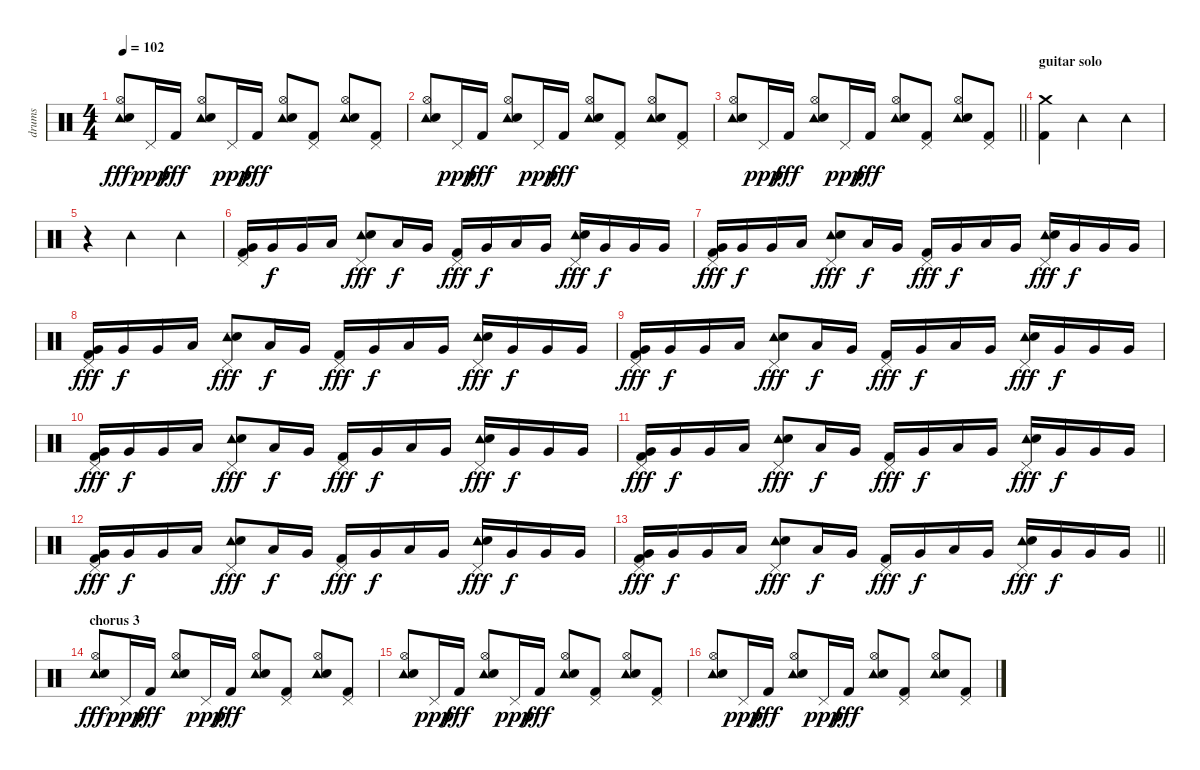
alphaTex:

\track ("drums" "drums") {instrument percussion}
\staff {score}
\articulation defaults
\ts (4 4)
\tempo 102
\clef neutral
\ks c
("Tambourine (hit)" "Hi-Hat (open)" "Electric Snare (hit)").8{dy fff} "Pedal Hi-Hat (hit)".16{dy ppp} "Kick (hit) 2".16{dy fff} ("Tambourine (hit)" "Hi-Hat (open)" "Electric Snare (hit)").8 "Pedal Hi-Hat (hit)".16{dy ppp} "Kick (hit) 2".16{dy fff} ("Tambourine (hit)" "Hi-Hat (open)" "Electric Snare (hit)").8 ("Pedal Hi-Hat (hit)" "Kick (hit) 2").8 ("Tambourine (hit)" "Hi-Hat (open)" "Electric Snare (hit)").8 ("Pedal Hi-Hat (hit)" "Kick (hit) 2").8 |
("Tambourine (hit)" "Hi-Hat (open)" "Electric Snare (hit)").8 "Pedal Hi-Hat (hit)".16{dy ppp} "Kick (hit) 2".16{dy fff} ("Tambourine (hit)" "Hi-Hat (open)" "Electric Snare (hit)").8 "Pedal Hi-Hat (hit)".16{dy ppp} "Kick (hit) 2".16{dy fff} ("Tambourine (hit)" "Hi-Hat (open)" "Electric Snare (hit)").8 ("Pedal Hi-Hat (hit)" "Kick (hit) 2").8 ("Tambourine (hit)" "Hi-Hat (open)" "Electric Snare (hit)").8 ("Pedal Hi-Hat (hit)" "Kick (hit) 2").8 |
\barLineRight lightlight
("Tambourine (hit)" "Hi-Hat (open)" "Electric Snare (hit)").8 "Pedal Hi-Hat (hit)".16{dy ppp} "Kick (hit) 2".16{dy fff} ("Tambourine (hit)" "Hi-Hat (open)" "Electric Snare (hit)").8 "Pedal Hi-Hat (hit)".16{dy ppp} "Kick (hit) 2".16{dy fff} ("Tambourine (hit)" "Hi-Hat (open)" "Electric Snare (hit)").8 ("Pedal Hi-Hat (hit)" "Kick (hit) 2").8 ("Tambourine (hit)" "Hi-Hat (open)" "Electric Snare (hit)").8 ("Pedal Hi-Hat (hit)" "Kick (hit) 2").8 |
\section ("" "guitar solo")
("Crash medium (hit)" "Kick (hit) 2").4 "Tambourine (hit)".2 "Tambourine (hit)".4 |
r.4 "Tambourine (hit)".2 "Tambourine (hit)".4 |
("Pedal Hi-Hat (hit)" "Very Low Tom (hit)" "Kick (hit) 2").16 "Very Low Tom (hit)".16{dy f} "Very Low Tom (hit)".16 "Low Tom (hit)".16 ("Tambourine (hit)" "Pedal Hi-Hat (hit)" "Electric Snare (hit)").8{dy fff} "Low Tom (hit)".16{dy f} "Very Low Tom (hit)".16 ("Pedal Hi-Hat (hit)" "Kick (hit) 2").16{dy fff} "Very Low Tom (hit)".16{dy f} "Low Tom (hit)".16 "Very Low Tom (hit)".16 ("Tambourine (hit)" "Pedal Hi-Hat (hit)" "Electric Snare (hit)").16{dy fff} "Very Low Tom (hit)".16{dy f} "Very Low Tom (hit)".16 "Very Low Tom (hit)".16 |
("Pedal Hi-Hat (hit)" "Very Low Tom (hit)" "Kick (hit) 2").16{dy fff} "Very Low Tom (hit)".16{dy f} "Very Low Tom (hit)".16 "Low Tom (hit)".16 ("Tambourine (hit)" "Pedal Hi-Hat (hit)" "Electric Snare (hit)").8{dy fff} "Low Tom (hit)".16{dy f} "Very Low Tom (hit)".16 ("Pedal Hi-Hat (hit)" "Kick (hit) 2").16{dy fff} "Very Low Tom (hit)".16{dy f} "Low Tom (hit)".16 "Very Low Tom (hit)".16 ("Tambourine (hit)" "Pedal Hi-Hat (hit)" "Electric Snare (hit)").16{dy fff} "Very Low Tom (hit)".16{dy f} "Very Low Tom (hit)".16 "Very Low Tom (hit)".16 |
("Pedal Hi-Hat (hit)" "Very Low Tom (hit)" "Kick (hit) 2").16{dy fff} "Very Low Tom (hit)".16{dy f} "Very Low Tom (hit)".16 "Low Tom (hit)".16 ("Tambourine (hit)" "Pedal Hi-Hat (hit)" "Electric Snare (hit)").8{dy fff} "Low Tom (hit)".16{dy f} "Very Low Tom (hit)".16 ("Pedal Hi-Hat (hit)" "Kick (hit) 2").16{dy fff} "Very Low Tom (hit)".16{dy f} "Low Tom (hit)".16 "Very Low Tom (hit)".16 ("Tambourine (hit)" "Pedal Hi-Hat (hit)" "Electric Snare (hit)").16{dy fff} "Very Low Tom (hit)".16{dy f} "Very Low Tom (hit)".16 "Very Low Tom (hit)".16 |
("Pedal Hi-Hat (hit)" "Very Low Tom (hit)" "Kick (hit) 2").16{dy fff} "Very Low Tom (hit)".16{dy f} "Very Low Tom (hit)".16 "Low Tom (hit)".16 ("Tambourine (hit)" "Pedal Hi-Hat (hit)" "Electric Snare (hit)").8{dy fff} "Low Tom (hit)".16{dy f} "Very Low Tom (hit)".16 ("Pedal Hi-Hat (hit)" "Kick (hit) 2").16{dy fff} "Very Low Tom (hit)".16{dy f} "Low Tom (hit)".16 "Very Low Tom (hit)".16 ("Tambourine (hit)" "Pedal Hi-Hat (hit)" "Electric Snare (hit)").16{dy fff} "Very Low Tom (hit)".16{dy f} "Very Low Tom (hit)".16 "Very Low Tom (hit)".16 |
("Pedal Hi-Hat (hit)" "Very Low Tom (hit)" "Kick (hit) 2").16{dy fff} "Very Low Tom (hit)".16{dy f} "Very Low Tom (hit)".16 "Low Tom (hit)".16 ("Tambourine (hit)" "Pedal Hi-Hat (hit)" "Electric Snare (hit)").8{dy fff} "Low Tom (hit)".16{dy f} "Very Low Tom (hit)".16 ("Pedal Hi-Hat (hit)" "Kick (hit) 2").16{dy fff} "Very Low Tom (hit)".16{dy f} "Low Tom (hit)".16 "Very Low Tom (hit)".16 ("Tambourine (hit)" "Pedal Hi-Hat (hit)" "Electric Snare (hit)").16{dy fff} "Very Low Tom (hit)".16{dy f} "Very Low Tom (hit)".16 "Very Low Tom (hit)".16 |
("Pedal Hi-Hat (hit)" "Very Low Tom (hit)" "Kick (hit) 2").16{dy fff} "Very Low Tom (hit)".16{dy f} "Very Low Tom (hit)".16 "Low Tom (hit)".16 ("Tambourine (hit)" "Pedal Hi-Hat (hit)" "Electric Snare (hit)").8{dy fff} "Low Tom (hit)".16{dy f} "Very Low Tom (hit)".16 ("Pedal Hi-Hat (hit)" "Kick (hit) 2").16{dy fff} "Very Low Tom (hit)".16{dy f} "Low Tom (hit)".16 "Very Low Tom (hit)".16 ("Tambourine (hit)" "Pedal Hi-Hat (hit)" "Electric Snare (hit)").16{dy fff} "Very Low Tom (hit)".16{dy f} "Very Low Tom (hit)".16 "Very Low Tom (hit)".16 |
("Pedal Hi-Hat (hit)" "Very Low Tom (hit)" "Kick (hit) 2").16{dy fff} "Very Low Tom (hit)".16{dy f} "Very Low Tom (hit)".16 "Low Tom (hit)".16 ("Tambourine (hit)" "Pedal Hi-Hat (hit)" "Electric Snare (hit)").8{dy fff} "Low Tom (hit)".16{dy f} "Very Low Tom (hit)".16 ("Pedal Hi-Hat (hit)" "Kick (hit) 2").16{dy fff} "Very Low Tom (hit)".16{dy f} "Low Tom (hit)".16 "Very Low Tom (hit)".16 ("Tambourine (hit)" "Pedal Hi-Hat (hit)" "Electric Snare (hit)").16{dy fff} "Very Low Tom (hit)".16{dy f} "Very Low Tom (hit)".16 "Very Low Tom (hit)".16 |
\barLineRight lightlight
("Pedal Hi-Hat (hit)" "Very Low Tom (hit)" "Kick (hit) 2").16{dy fff} "Very Low Tom (hit)".16{dy f} "Very Low Tom (hit)".16 "Low Tom (hit)".16 ("Tambourine (hit)" "Pedal Hi-Hat (hit)" "Electric Snare (hit)").8{dy fff} "Low Tom (hit)".16{dy f} "Very Low Tom (hit)".16 ("Pedal Hi-Hat (hit)" "Kick (hit) 2").16{dy fff} "Very Low Tom (hit)".16{dy f} "Low Tom (hit)".16 "Very Low Tom (hit)".16 ("Tambourine (hit)" "Pedal Hi-Hat (hit)" "Electric Snare (hit)").16{dy fff} "Very Low Tom (hit)".16{dy f} "Very Low Tom (hit)".16 "Very Low Tom (hit)".16 |
\section ("" "chorus 3")
("Tambourine (hit)" "Hi-Hat (open)" "Electric Snare (hit)").8{dy fff} "Pedal Hi-Hat (hit)".16{dy ppp} "Kick (hit) 2".16{dy fff} ("Tambourine (hit)" "Hi-Hat (open)" "Electric Snare (hit)").8 "Pedal Hi-Hat (hit)".16{dy ppp} "Kick (hit) 2".16{dy fff} ("Tambourine (hit)" "Hi-Hat (open)" "Electric Snare (hit)").8 ("Pedal Hi-Hat (hit)" "Kick (hit) 2").8 ("Tambourine (hit)" "Hi-Hat (open)" "Electric Snare (hit)").8 ("Pedal Hi-Hat (hit)" "Kick (hit) 2").8 |
("Tambourine (hit)" "Hi-Hat (open)" "Electric Snare (hit)").8 "Pedal Hi-Hat (hit)".16{dy ppp} "Kick (hit) 2".16{dy fff} ("Tambourine (hit)" "Hi-Hat (open)" "Electric Snare (hit)").8 "Pedal Hi-Hat (hit)".16{dy ppp} "Kick (hit) 2".16{dy fff} ("Tambourine (hit)" "Hi-Hat (open)" "Electric Snare (hit)").8 ("Pedal Hi-Hat (hit)" "Kick (hit) 2").8 ("Tambourine (hit)" "Hi-Hat (open)" "Electric Snare (hit)").8 ("Pedal Hi-Hat (hit)" "Kick (hit) 2").8 |
("Tambourine (hit)" "Hi-Hat (open)" "Electric Snare (hit)").8 "Pedal Hi-Hat (hit)".16{dy ppp} "Kick (hit) 2".16{dy fff} ("Tambourine (hit)" "Hi-Hat (open)" "Electric Snare (hit)").8 "Pedal Hi-Hat (hit)".16{dy ppp} "Kick (hit) 2".16{dy fff} ("Tambourine (hit)" "Hi-Hat (open)" "Electric Snare (hit)").8 ("Pedal Hi-Hat (hit)" "Kick (hit) 2").8 ("Tambourine (hit)" "Hi-Hat (open)" "Electric Snare (hit)").8 ("Pedal Hi-Hat (hit)" "Kick (hit) 2").8
